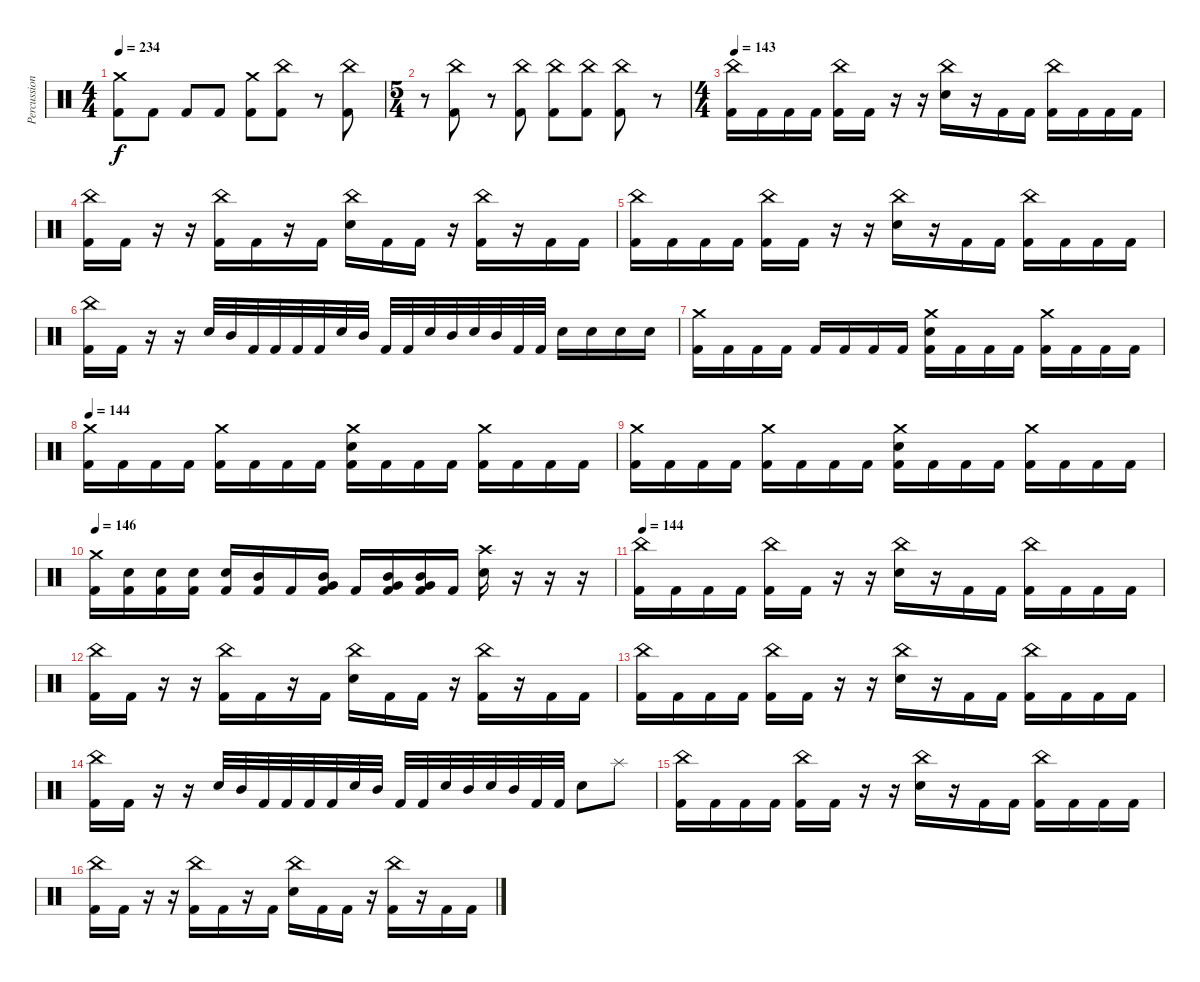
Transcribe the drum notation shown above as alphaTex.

\track ("Percussion" "Percussion") {instrument percussion}
\staff {score}
\articulation defaults
\ts (4 4)
\tempo 234
\clef neutral
\ks c
("Crash medium (hit)" "Kick (hit) 2").8{dy f} "Kick (hit) 2".8 "Kick (hit) 2".8 "Kick (hit) 2".8 ("Crash medium (hit)" "Kick (hit) 2").8 ("China (hit)" "Kick (hit) 2").8 r.8 ("China (hit)" "Kick (hit) 2").8 |
\ts (5 4)
r.8 ("China (hit)" "Kick (hit) 2").8 r.8 ("China (hit)" "Kick (hit) 2").8 ("China (hit)" "Kick (hit) 2").8 ("China (hit)" "Kick (hit) 2").8 ("China (hit)" "Kick (hit) 2").8 r.8 |
\ts (4 4)
\tempo 143
("China (hit)" "Kick (hit) 2").16 "Kick (hit) 2".16 "Kick (hit) 2".16 "Kick (hit) 2".16 ("China (hit)" "Kick (hit) 2").16 "Kick (hit) 2".16 r.16 r.16 ("China (hit)" "Snare (hit) 2").16 r.16 "Kick (hit) 2".16 "Kick (hit) 2".16 ("China (hit)" "Kick (hit) 2").16 "Kick (hit) 2".16 "Kick (hit) 2".16 "Kick (hit) 2".16 |
("China (hit)" "Kick (hit) 2").16 "Kick (hit) 2".16 r.16 r.16 ("China (hit)" "Kick (hit) 2").16 "Kick (hit) 2".16 r.16 "Kick (hit) 2".16 ("China (hit)" "Snare (hit) 2").16 "Kick (hit) 2".16 "Kick (hit) 2".16 r.16 ("China (hit)" "Kick (hit) 2").16 r.16 "Kick (hit) 2".16 "Kick (hit) 2".16 |
("China (hit)" "Kick (hit) 2").16 "Kick (hit) 2".16 "Kick (hit) 2".16 "Kick (hit) 2".16 ("China (hit)" "Kick (hit) 2").16 "Kick (hit) 2".16 r.16 r.16 ("China (hit)" "Snare (hit) 2").16 r.16 "Kick (hit) 2".16 "Kick (hit) 2".16 ("China (hit)" "Kick (hit) 2").16 "Kick (hit) 2".16 "Kick (hit) 2".16 "Kick (hit) 2".16 |
("China (hit)" "Kick (hit) 2").16 "Kick (hit) 2".16 r.16 r.16 "Snare (hit) 2".32 "Mid Tom (hit)".32 "Kick (hit) 2".32 "Kick (hit) 2".32 "Kick (hit) 2".32 "Kick (hit) 2".32 "Snare (hit) 2".32 "Mid Tom (hit)".32 "Kick (hit) 2".32 "Kick (hit) 2".32 "Snare (hit) 2".32 "Mid Tom (hit)".32 "Snare (hit) 2".32 "Mid Tom (hit)".32 "Kick (hit) 2".32 "Kick (hit) 2".32 "Snare (hit) 2".16 "Snare (hit) 2".16 "Snare (hit) 2".16 "Snare (hit) 2".16 |
("Crash medium (hit)" "Kick (hit) 2").16 "Kick (hit) 2".16 "Kick (hit) 2".16 "Kick (hit) 2".16 "Kick (hit) 2".16 "Kick (hit) 2".16 "Kick (hit) 2".16 "Kick (hit) 2".16 ("Crash medium (hit)" "Snare (hit) 2" "Kick (hit) 2").16 "Kick (hit) 2".16 "Kick (hit) 2".16 "Kick (hit) 2".16 ("Crash medium (hit)" "Kick (hit) 2").16 "Kick (hit) 2".16 "Kick (hit) 2".16 "Kick (hit) 2".16 |
\tempo 144
("Crash medium (hit)" "Kick (hit) 2").16 "Kick (hit) 2".16 "Kick (hit) 2".16 "Kick (hit) 2".16 ("Crash medium (hit)" "Kick (hit) 2").16 "Kick (hit) 2".16 "Kick (hit) 2".16 "Kick (hit) 2".16 ("Crash medium (hit)" "Snare (hit) 2" "Kick (hit) 2").16 "Kick (hit) 2".16 "Kick (hit) 2".16 "Kick (hit) 2".16 ("Crash medium (hit)" "Kick (hit) 2").16 "Kick (hit) 2".16 "Kick (hit) 2".16 "Kick (hit) 2".16 |
("Crash medium (hit)" "Kick (hit) 2").16 "Kick (hit) 2".16 "Kick (hit) 2".16 "Kick (hit) 2".16 ("Crash medium (hit)" "Kick (hit) 2").16 "Kick (hit) 2".16 "Kick (hit) 2".16 "Kick (hit) 2".16 ("Crash medium (hit)" "Snare (hit) 2" "Kick (hit) 2").16 "Kick (hit) 2".16 "Kick (hit) 2".16 "Kick (hit) 2".16 ("Crash medium (hit)" "Kick (hit) 2").16 "Kick (hit) 2".16 "Kick (hit) 2".16 "Kick (hit) 2".16 |
\tempo 146
("Crash medium (hit)" "Kick (hit) 2").16 ("Snare (hit) 2" "Kick (hit) 2").16 ("Snare (hit) 2" "Kick (hit) 2").16 ("Snare (hit) 2" "Kick (hit) 2").16 ("Snare (hit) 2" "Kick (hit) 2").16 ("Mid Tom (hit)" "Kick (hit) 2").16 "Kick (hit) 2".16 ("Very Low Tom (hit)" "Mid Tom (hit)" "Kick (hit) 2").16 "Kick (hit) 2".16 ("Very Low Tom (hit)" "Mid Tom (hit)" "Kick (hit) 2").16 ("Very Low Tom (hit)" "Mid Tom (hit)" "Kick (hit) 2").16 "Kick (hit) 2".16 ("Crash high (hit)" "Snare (hit) 2").16 r.16 r.16 r.16 |
\tempo 144
("China (hit)" "Kick (hit) 2").16 "Kick (hit) 2".16 "Kick (hit) 2".16 "Kick (hit) 2".16 ("China (hit)" "Kick (hit) 2").16 "Kick (hit) 2".16 r.16 r.16 ("China (hit)" "Snare (hit) 2").16 r.16 "Kick (hit) 2".16 "Kick (hit) 2".16 ("China (hit)" "Kick (hit) 2").16 "Kick (hit) 2".16 "Kick (hit) 2".16 "Kick (hit) 2".16 |
("China (hit)" "Kick (hit) 2").16 "Kick (hit) 2".16 r.16 r.16 ("China (hit)" "Kick (hit) 2").16 "Kick (hit) 2".16 r.16 "Kick (hit) 2".16 ("China (hit)" "Snare (hit) 2").16 "Kick (hit) 2".16 "Kick (hit) 2".16 r.16 ("China (hit)" "Kick (hit) 2").16 r.16 "Kick (hit) 2".16 "Kick (hit) 2".16 |
("China (hit)" "Kick (hit) 2").16 "Kick (hit) 2".16 "Kick (hit) 2".16 "Kick (hit) 2".16 ("China (hit)" "Kick (hit) 2").16 "Kick (hit) 2".16 r.16 r.16 ("China (hit)" "Snare (hit) 2").16 r.16 "Kick (hit) 2".16 "Kick (hit) 2".16 ("China (hit)" "Kick (hit) 2").16 "Kick (hit) 2".16 "Kick (hit) 2".16 "Kick (hit) 2".16 |
("China (hit)" "Kick (hit) 2").16 "Kick (hit) 2".16 r.16 r.16 "Snare (hit) 2".32 "Mid Tom (hit)".32 "Kick (hit) 2".32 "Kick (hit) 2".32 "Kick (hit) 2".32 "Kick (hit) 2".32 "Snare (hit) 2".32 "Mid Tom (hit)".32 "Kick (hit) 2".32 "Kick (hit) 2".32 "Snare (hit) 2".32 "Mid Tom (hit)".32 "Snare (hit) 2".32 "Mid Tom (hit)".32 "Kick (hit) 2".32 "Kick (hit) 2".32 "Snare (hit) 2".8 "Splash (hit)".8 |
("China (hit)" "Kick (hit) 2").16 "Kick (hit) 2".16 "Kick (hit) 2".16 "Kick (hit) 2".16 ("China (hit)" "Kick (hit) 2").16 "Kick (hit) 2".16 r.16 r.16 ("China (hit)" "Snare (hit) 2").16 r.16 "Kick (hit) 2".16 "Kick (hit) 2".16 ("China (hit)" "Kick (hit) 2").16 "Kick (hit) 2".16 "Kick (hit) 2".16 "Kick (hit) 2".16 |
("China (hit)" "Kick (hit) 2").16 "Kick (hit) 2".16 r.16 r.16 ("China (hit)" "Kick (hit) 2").16 "Kick (hit) 2".16 r.16 "Kick (hit) 2".16 ("China (hit)" "Snare (hit) 2").16 "Kick (hit) 2".16 "Kick (hit) 2".16 r.16 ("China (hit)" "Kick (hit) 2").16 r.16 "Kick (hit) 2".16 "Kick (hit) 2".16
